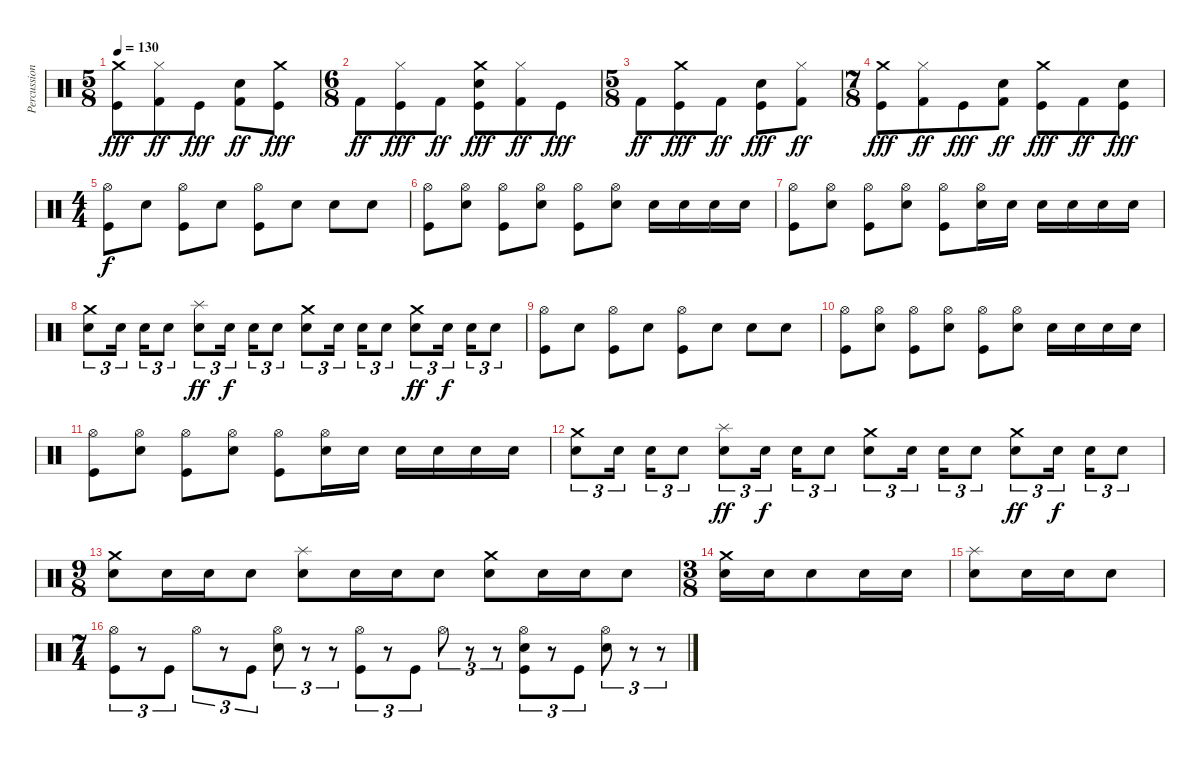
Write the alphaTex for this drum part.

\track ("Percussioni" "Percussion") {instrument percussion}
\staff {score}
\articulation defaults
\ts (5 8)
\tempo 130
\clef neutral
\ks c
("Crash medium (hit)" "Kick (hit)").8{dy fff} ("Hi-Hat (closed)" "Kick (hit) 2").8{dy ff} "Kick (hit)".8{dy fff} ("Snare (hit) 2" "Kick (hit) 2").8{dy ff} ("Crash medium (hit)" "Kick (hit)").8{dy fff} |
\ts (6 8)
"Kick (hit) 2".8{dy ff} ("Hi-Hat (closed)" "Kick (hit)").8{dy fff} "Kick (hit) 2".8{dy ff} ("Crash medium (hit)" "Snare (hit) 2" "Kick (hit)").8{dy fff} ("Hi-Hat (closed)" "Kick (hit) 2").8{dy ff} "Kick (hit)".8{dy fff} |
\ts (5 8)
"Kick (hit) 2".8{dy ff} ("Crash medium (hit)" "Kick (hit)").8{dy fff} "Kick (hit) 2".8{dy ff} ("Snare (hit) 2" "Kick (hit)").8{dy fff} ("Hi-Hat (closed)" "Kick (hit) 2").8{dy ff} |
\ts (7 8)
("Crash medium (hit)" "Kick (hit)").8{dy fff} ("Hi-Hat (closed)" "Kick (hit) 2").8{dy ff} "Kick (hit)".8{dy fff} ("Snare (hit) 2" "Kick (hit) 2").8{dy ff} ("Crash medium (hit)" "Kick (hit)").8{dy fff} "Kick (hit) 2".8{dy ff} ("Snare (hit) 2" "Kick (hit)").8{dy fff} |
\ts (4 4)
("Hi-Hat (open)" "Kick (hit)").8{dy f} "Snare (hit) 2".8 ("Hi-Hat (open)" "Kick (hit)").8 "Snare (hit) 2".8 ("Hi-Hat (open)" "Kick (hit)").8 "Snare (hit) 2".8 "Snare (hit) 2".8 "Snare (hit) 2".8 |
("Hi-Hat (open)" "Kick (hit)").8 ("Hi-Hat (open)" "Snare (hit) 2").8 ("Hi-Hat (open)" "Kick (hit)").8 ("Hi-Hat (open)" "Snare (hit) 2").8 ("Hi-Hat (open)" "Kick (hit)").8 ("Hi-Hat (open)" "Snare (hit) 2").8 "Snare (hit) 2".16 "Snare (hit) 2".16 "Snare (hit) 2".16 "Snare (hit) 2".16 |
("Hi-Hat (open)" "Kick (hit)").8 ("Hi-Hat (open)" "Snare (hit) 2").8 ("Hi-Hat (open)" "Kick (hit)").8 ("Hi-Hat (open)" "Snare (hit) 2").8 ("Hi-Hat (open)" "Kick (hit)").8 ("Hi-Hat (open)" "Snare (hit) 2").16 "Snare (hit) 2".16 "Snare (hit) 2".16 "Snare (hit) 2".16 "Snare (hit) 2".16 "Snare (hit) 2".16 |
("Crash medium (hit)" "Snare (hit) 2").8{tu (3 2)} "Snare (hit) 2".16{tu (3 2)} "Snare (hit) 2".16{tu (3 2)} "Snare (hit) 2".8{tu (3 2)} ("Splash (hit)" "Snare (hit) 2").8{tu (3 2) dy ff} "Snare (hit) 2".16{tu (3 2) dy f} "Snare (hit) 2".16{tu (3 2)} "Snare (hit) 2".8{tu (3 2)} ("Crash medium (hit)" "Snare (hit) 2").8{tu (3 2)} "Snare (hit) 2".16{tu (3 2)} "Snare (hit) 2".16{tu (3 2)} "Snare (hit) 2".8{tu (3 2)} ("Crash medium (hit)" "Snare (hit) 2").8{tu (3 2) dy ff} "Snare (hit) 2".16{tu (3 2) dy f} "Snare (hit) 2".16{tu (3 2)} "Snare (hit) 2".8{tu (3 2)} |
("Hi-Hat (open)" "Kick (hit)").8 "Snare (hit) 2".8 ("Hi-Hat (open)" "Kick (hit)").8 "Snare (hit) 2".8 ("Hi-Hat (open)" "Kick (hit)").8 "Snare (hit) 2".8 "Snare (hit) 2".8 "Snare (hit) 2".8 |
("Hi-Hat (open)" "Kick (hit)").8 ("Hi-Hat (open)" "Snare (hit) 2").8 ("Hi-Hat (open)" "Kick (hit)").8 ("Hi-Hat (open)" "Snare (hit) 2").8 ("Hi-Hat (open)" "Kick (hit)").8 ("Hi-Hat (open)" "Snare (hit) 2").8 "Snare (hit) 2".16 "Snare (hit) 2".16 "Snare (hit) 2".16 "Snare (hit) 2".16 |
("Hi-Hat (open)" "Kick (hit)").8 ("Hi-Hat (open)" "Snare (hit) 2").8 ("Hi-Hat (open)" "Kick (hit)").8 ("Hi-Hat (open)" "Snare (hit) 2").8 ("Hi-Hat (open)" "Kick (hit)").8 ("Hi-Hat (open)" "Snare (hit) 2").16 "Snare (hit) 2".16 "Snare (hit) 2".16 "Snare (hit) 2".16 "Snare (hit) 2".16 "Snare (hit) 2".16 |
("Crash medium (hit)" "Snare (hit) 2").8{tu (3 2)} "Snare (hit) 2".16{tu (3 2)} "Snare (hit) 2".16{tu (3 2)} "Snare (hit) 2".8{tu (3 2)} ("Splash (hit)" "Snare (hit) 2").8{tu (3 2) dy ff} "Snare (hit) 2".16{tu (3 2) dy f} "Snare (hit) 2".16{tu (3 2)} "Snare (hit) 2".8{tu (3 2)} ("Crash medium (hit)" "Snare (hit) 2").8{tu (3 2)} "Snare (hit) 2".16{tu (3 2)} "Snare (hit) 2".16{tu (3 2)} "Snare (hit) 2".8{tu (3 2)} ("Crash medium (hit)" "Snare (hit) 2").8{tu (3 2) dy ff} "Snare (hit) 2".16{tu (3 2) dy f} "Snare (hit) 2".16{tu (3 2)} "Snare (hit) 2".8{tu (3 2)} |
\ts (9 8)
("Crash medium (hit)" "Snare (hit) 2").8 "Snare (hit) 2".16 "Snare (hit) 2".16 "Snare (hit) 2".8 ("Splash (hit)" "Snare (hit) 2").8 "Snare (hit) 2".16 "Snare (hit) 2".16 "Snare (hit) 2".8 ("Crash medium (hit)" "Snare (hit) 2").8 "Snare (hit) 2".16 "Snare (hit) 2".16 "Snare (hit) 2".8 |
\ts (3 8)
("Crash medium (hit)" "Snare (hit) 2").16 "Snare (hit) 2".16 "Snare (hit) 2".8 "Snare (hit) 2".16 "Snare (hit) 2".16 |
("Splash (hit)" "Snare (hit) 2").8 "Snare (hit) 2".16 "Snare (hit) 2".16 "Snare (hit) 2".8 |
\ts (7 4)
("Hi-Hat (open)" "Kick (hit)").8{tu (3 2)} r.8{tu (3 2)} "Kick (hit)".8{tu (3 2)} "Hi-Hat (open)".8{tu (3 2)} r.8{tu (3 2)} "Kick (hit)".8{tu (3 2)} ("Hi-Hat (open)" "Snare (hit) 2").8{tu (3 2)} r.8{tu (3 2)} r.8{tu (3 2)} ("Hi-Hat (open)" "Kick (hit)").8{tu (3 2)} r.8{tu (3 2)} "Kick (hit)".8{tu (3 2)} "Hi-Hat (open)".8{tu (3 2)} r.8{tu (3 2)} r.8{tu (3 2)} ("Hi-Hat (open)" "Snare (hit) 2" "Kick (hit)").8{tu (3 2)} r.8{tu (3 2)} "Kick (hit)".8{tu (3 2)} ("Hi-Hat (open)" "Snare (hit) 2").8{tu (3 2)} r.8{tu (3 2)} r.8{tu (3 2)}
